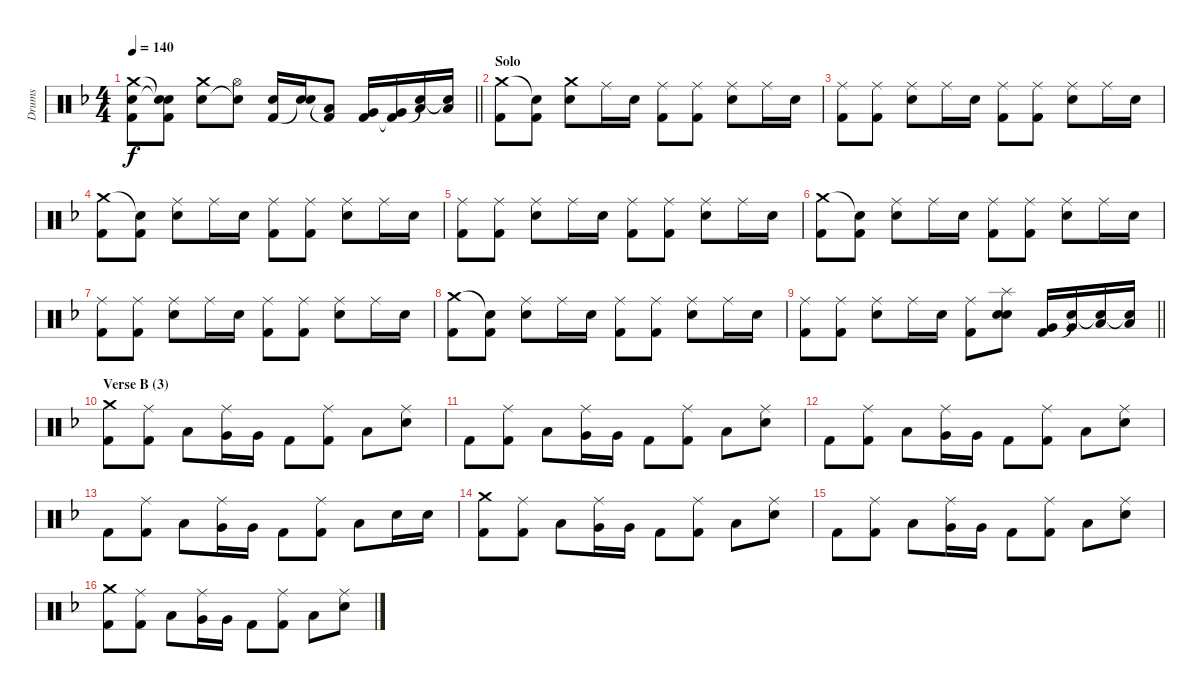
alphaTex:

\track ("Drums" "Drums") {instrument percussion}
\staff {score}
\articulation defaults
\ts (4 4)
\tempo 140
\clef neutral
\barLineRight lightlight
\ks f
("Crash medium (hit)" "Electric Snare (hit)" "Kick (hit) 2").8{dy f} ("Snare (hit)"{t} "Snare (hit)"{t} "Kick (hit) 2").8 ("Crash medium (hit)" "Electric Snare (hit)").8 ("Hi-Hat (open)" "Snare (hit)"{t}).8 ("Electric Snare (hit)" "Kick (hit) 2").16 ("Electric Snare (hit)" "Snare (hit)"{t}).16 ("Low Tom (hit)" "Kick (hit) 2"{t}).8 ("Very Low Tom (hit)" "Kick (hit) 2").16 ("Very Low Tom (hit)" "Kick (hit) 2"{t}).16 ("Low Floor Tom (hit)" "Snare (hit)"{t}).16 ("Low Floor Tom (hit)" "Snare (hit)"{t}).16 |
\section ("" "Solo")
("Crash medium (hit)" "Kick (hit) 2").8 ("Snare (hit)"{t} "Kick (hit) 2").8 ("Crash medium (hit)" "Electric Snare (hit)").8 "Ride (middle)".16 "Electric Snare (hit)".16 ("Ride (middle)" "Kick (hit) 2").8 ("Ride (middle)" "Kick (hit) 2").8 ("Ride (middle)" "Electric Snare (hit)").8 "Ride (middle)".16 "Electric Snare (hit)".16 |
("Ride (middle)" "Kick (hit) 2").8 ("Ride (middle)" "Kick (hit) 2").8 ("Ride (middle)" "Electric Snare (hit)").8 "Ride (middle)".16 "Electric Snare (hit)".16 ("Ride (middle)" "Kick (hit) 2").8 ("Ride (middle)" "Kick (hit) 2").8 ("Ride (middle)" "Electric Snare (hit)").8 "Ride (middle)".16 "Electric Snare (hit)".16 |
("Crash medium (hit)" "Kick (hit) 2").8 ("Snare (hit)"{t} "Kick (hit) 2").8 ("Ride (middle)" "Electric Snare (hit)").8 "Ride (middle)".16 "Electric Snare (hit)".16 ("Ride (middle)" "Kick (hit) 2").8 ("Ride (middle)" "Kick (hit) 2").8 ("Ride (middle)" "Electric Snare (hit)").8 "Ride (middle)".16 "Electric Snare (hit)".16 |
("Ride (middle)" "Kick (hit) 2").8 ("Ride (middle)" "Kick (hit) 2").8 ("Ride (middle)" "Electric Snare (hit)").8 "Ride (middle)".16 "Electric Snare (hit)".16 ("Ride (middle)" "Kick (hit) 2").8 ("Ride (middle)" "Kick (hit) 2").8 ("Ride (middle)" "Electric Snare (hit)").8 "Ride (middle)".16 "Electric Snare (hit)".16 |
("Crash medium (hit)" "Kick (hit) 2").8 ("Snare (hit)"{t} "Kick (hit) 2").8 ("Ride (middle)" "Electric Snare (hit)").8 "Ride (middle)".16 "Electric Snare (hit)".16 ("Ride (middle)" "Kick (hit) 2").8 ("Ride (middle)" "Kick (hit) 2").8 ("Ride (middle)" "Electric Snare (hit)").8 "Ride (middle)".16 "Electric Snare (hit)".16 |
("Ride (middle)" "Kick (hit) 2").8 ("Ride (middle)" "Kick (hit) 2").8 ("Ride (middle)" "Electric Snare (hit)").8 "Ride (middle)".16 "Electric Snare (hit)".16 ("Ride (middle)" "Kick (hit) 2").8 ("Ride (middle)" "Kick (hit) 2").8 ("Ride (middle)" "Electric Snare (hit)").8 "Ride (middle)".16 "Electric Snare (hit)".16 |
("Crash medium (hit)" "Kick (hit) 2").8 ("Snare (hit)"{t} "Kick (hit) 2").8 ("Ride (middle)" "Electric Snare (hit)").8 "Ride (middle)".16 "Electric Snare (hit)".16 ("Ride (middle)" "Kick (hit) 2").8 ("Ride (middle)" "Kick (hit) 2").8 ("Ride (middle)" "Electric Snare (hit)").8 "Ride (middle)".16 "Electric Snare (hit)".16 |
\barLineRight lightlight
("Ride (middle)" "Kick (hit) 2").8 ("Ride (middle)" "Kick (hit) 2").8 ("Ride (middle)" "Electric Snare (hit)").8 "Ride (middle)".16 "Electric Snare (hit)".16 ("Ride (middle)" "Kick (hit) 2").8 ("Splash (hit)" "Electric Snare (hit)" "Snare (hit)").8 ("Very Low Tom (hit)" "Kick (hit) 2").16 ("Very Low Tom (hit)" "Snare (hit)"{t}).16 ("Low Floor Tom (hit)" "Snare (hit)"{t}).16 ("Low Floor Tom (hit)" "Snare (hit)"{t}).16 |
\section ("" "Verse B (3)")
("Crash medium (hit)" "Kick (hit) 2").8 ("Ride (middle)" "Kick (hit) 2").8 "Low Tom (hit)".8 ("Ride (middle)" "Very Low Tom (hit)").16 "Very Low Tom (hit)".16 "Kick (hit) 2".8 ("Ride (middle)" "Kick (hit) 2").8 "Low Floor Tom (hit)".8 ("Ride (middle)" "Electric Snare (hit)").8 |
"Kick (hit) 2".8 ("Ride (middle)" "Kick (hit) 2").8 "Low Tom (hit)".8 ("Ride (middle)" "Very Low Tom (hit)").16 "Very Low Tom (hit)".16 "Kick (hit) 2".8 ("Ride (middle)" "Kick (hit) 2").8 "Low Floor Tom (hit)".8 ("Ride (middle)" "Electric Snare (hit)").8 |
"Kick (hit) 2".8 ("Ride (middle)" "Kick (hit) 2").8 "Low Tom (hit)".8 ("Ride (middle)" "Very Low Tom (hit)").16 "Very Low Tom (hit)".16 "Kick (hit) 2".8 ("Ride (middle)" "Kick (hit) 2").8 "Low Floor Tom (hit)".8 ("Ride (middle)" "Electric Snare (hit)").8 |
"Kick (hit) 2".8 ("Ride (middle)" "Kick (hit) 2").8 "Low Tom (hit)".8 ("Ride (middle)" "Very Low Tom (hit)").16 "Very Low Tom (hit)".16 "Kick (hit) 2".8 ("Ride (middle)" "Kick (hit) 2").8 "Low Floor Tom (hit)".8 "Electric Snare (hit)".16 "Electric Snare (hit)".16 |
("Crash medium (hit)" "Kick (hit) 2").8 ("Ride (middle)" "Kick (hit) 2").8 "Low Tom (hit)".8 ("Ride (middle)" "Very Low Tom (hit)").16 "Very Low Tom (hit)".16 "Kick (hit) 2".8 ("Ride (middle)" "Kick (hit) 2").8 "Low Floor Tom (hit)".8 ("Ride (middle)" "Electric Snare (hit)").8 |
"Kick (hit) 2".8 ("Ride (middle)" "Kick (hit) 2").8 "Low Tom (hit)".8 ("Ride (middle)" "Very Low Tom (hit)").16 "Very Low Tom (hit)".16 "Kick (hit) 2".8 ("Ride (middle)" "Kick (hit) 2").8 "Low Floor Tom (hit)".8 ("Ride (middle)" "Electric Snare (hit)").8 |
("Crash medium (hit)" "Kick (hit) 2").8 ("Ride (middle)" "Kick (hit) 2").8 "Low Tom (hit)".8 ("Ride (middle)" "Very Low Tom (hit)").16 "Very Low Tom (hit)".16 "Kick (hit) 2".8 ("Ride (middle)" "Kick (hit) 2").8 "Low Floor Tom (hit)".8 ("Ride (middle)" "Electric Snare (hit)").8
